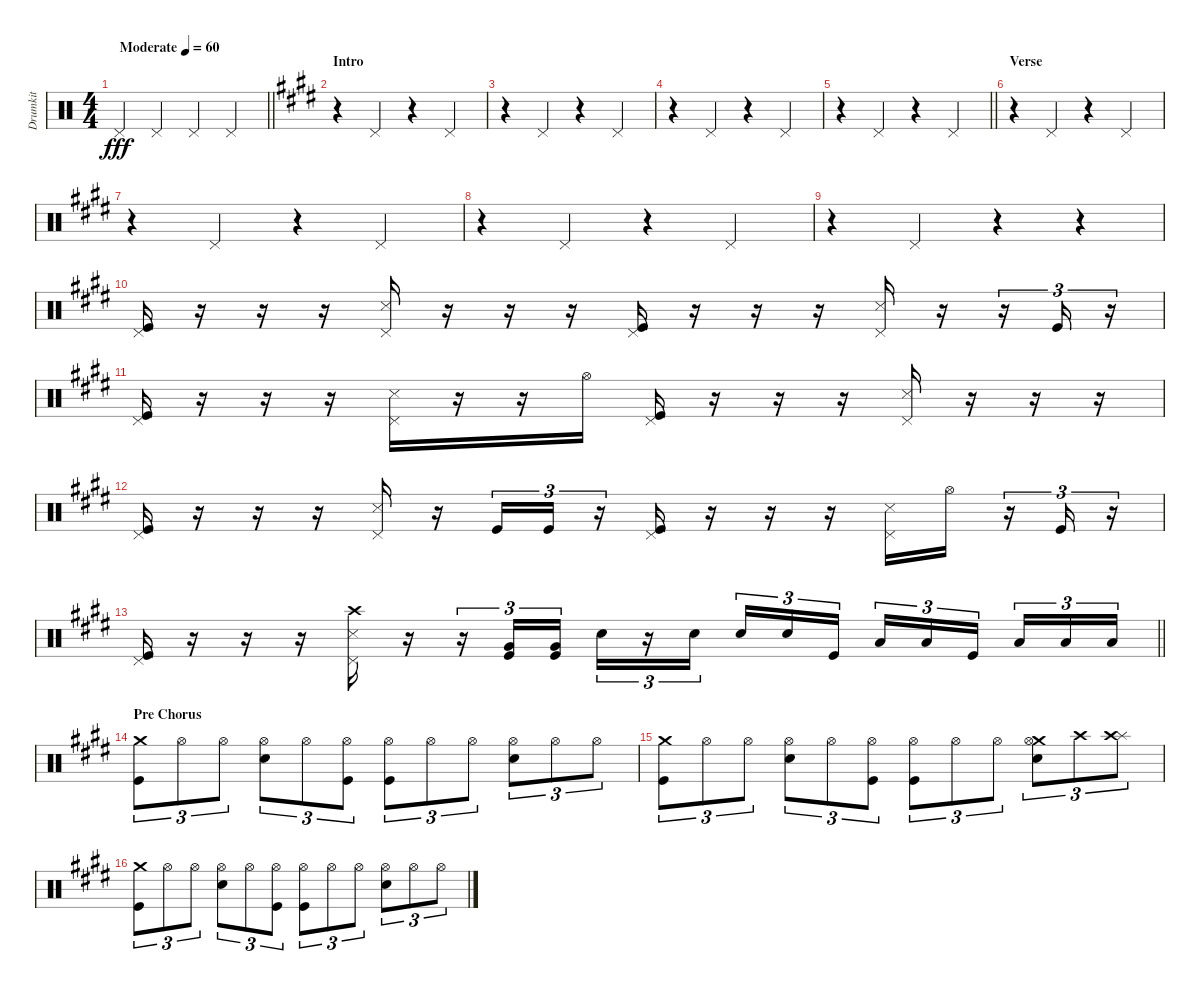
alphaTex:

\track ("Drumkit" "Drumkit") {instrument percussion}
\staff {score}
\articulation defaults
\ts (4 4)
\tempo (60 "Moderate")
\clef neutral
\barLineRight lightlight
\ks c "Pedal Hi-Hat (hit)".4{dy fff} "Pedal Hi-Hat (hit)".4 "Pedal Hi-Hat (hit)".4 "Pedal Hi-Hat (hit)".4
|
\section ("" "Intro")
\ks e
r.4 "Pedal Hi-Hat (hit)".4 r.4 "Pedal Hi-Hat (hit)".4 |
r.4 "Pedal Hi-Hat (hit)".4 r.4 "Pedal Hi-Hat (hit)".4 |
r.4 "Pedal Hi-Hat (hit)".4 r.4 "Pedal Hi-Hat (hit)".4 |
\barLineRight lightlight
r.4 "Pedal Hi-Hat (hit)".4 r.4 "Pedal Hi-Hat (hit)".4 |
\section ("" "Verse")
r.4 "Pedal Hi-Hat (hit)".4 r.4 "Pedal Hi-Hat (hit)".4 |
r.4 "Pedal Hi-Hat (hit)".4 r.4 "Pedal Hi-Hat (hit)".4 |
r.4 "Pedal Hi-Hat (hit)".4 r.4 "Pedal Hi-Hat (hit)".4 |
r.4 "Pedal Hi-Hat (hit)".4 r.4 r.4 |
("Pedal Hi-Hat (hit)" "Kick (hit)").16 r.16 r.16 r.16 ("Pedal Hi-Hat (hit)" "Snare (side stick) 3").16 r.16 r.16 r.16 ("Pedal Hi-Hat (hit)" "Kick (hit)").16 r.16 r.16 r.16 ("Pedal Hi-Hat (hit)" "Snare (side stick) 3").16 r.16 r.16{tu (3 2)} "Kick (hit)".16{tu (3 2)} r.16{tu (3 2)} |
("Pedal Hi-Hat (hit)" "Kick (hit)").16 r.16 r.16 r.16 ("Pedal Hi-Hat (hit)" "Snare (side stick) 3").16 r.16 r.16 "Hi-Hat (open)".16 ("Pedal Hi-Hat (hit)" "Kick (hit)").16 r.16 r.16 r.16 ("Pedal Hi-Hat (hit)" "Snare (side stick) 3").16 r.16 r.16 r.16 |
("Pedal Hi-Hat (hit)" "Kick (hit)").16 r.16 r.16 r.16 ("Pedal Hi-Hat (hit)" "Snare (side stick) 3").16 r.16 "Kick (hit)".16{tu (3 2)} "Kick (hit)".16{tu (3 2)} r.16{tu (3 2)} ("Pedal Hi-Hat (hit)" "Kick (hit)").16 r.16 r.16 r.16 ("Pedal Hi-Hat (hit)" "Snare (side stick) 3").16 "Hi-Hat (open)".16 r.16{tu (3 2)} "Kick (hit)".16{tu (3 2)} r.16{tu (3 2)} |
\barLineRight lightlight
("Pedal Hi-Hat (hit)" "Kick (hit)").16 r.16 r.16 r.16 ("Crash high (hit)" "Pedal Hi-Hat (hit)" "Snare (side stick) 3").16 r.16 r.16{tu (3 2)} ("Very Low Tom (hit)" "Kick (hit)").16{tu (3 2)} ("Very Low Tom (hit)" "Kick (hit)").16{tu (3 2)} "Snare (hit) 2".16{tu (3 2)} r.16{tu (3 2)} "Snare (hit) 2".16{tu (3 2)} "Snare (hit) 2".16{tu (3 2)} "Snare (hit) 2".16{tu (3 2)} "Kick (hit)".16{tu (3 2)} "Low Tom (hit)".16{tu (3 2)} "Low Tom (hit)".16{tu (3 2)} "Kick (hit)".16{tu (3 2)} "Low Floor Tom (hit)".16{tu (3 2)} "Low Floor Tom (hit)".16{tu (3 2)} "Low Floor Tom (hit)".16{tu (3 2)} |
\section ("" "Pre Chorus")
("Crash medium (hit)" "Kick (hit)").8{tu (3 2)} "Hi-Hat (open)".8{tu (3 2)} "Hi-Hat (open)".8{tu (3 2)} ("Hi-Hat (open)" "Snare (hit) 2").8{tu (3 2)} "Hi-Hat (open)".8{tu (3 2)} ("Hi-Hat (open)" "Kick (hit)").8{tu (3 2)} ("Hi-Hat (open)" "Kick (hit)").8{tu (3 2)} "Hi-Hat (open)".8{tu (3 2)} "Hi-Hat (open)".8{tu (3 2)} ("Hi-Hat (open)" "Snare (hit) 2").8{tu (3 2)} "Hi-Hat (open)".8{tu (3 2)} "Hi-Hat (open)".8{tu (3 2)} |
("Crash medium (hit)" "Kick (hit)").8{tu (3 2)} "Hi-Hat (open)".8{tu (3 2)} "Hi-Hat (open)".8{tu (3 2)} ("Hi-Hat (open)" "Snare (hit) 2").8{tu (3 2)} "Hi-Hat (open)".8{tu (3 2)} ("Hi-Hat (open)" "Kick (hit)").8{tu (3 2)} ("Hi-Hat (open)" "Kick (hit)").8{tu (3 2)} "Hi-Hat (open)".8{tu (3 2)} "Hi-Hat (open)".8{tu (3 2)} ("Crash medium (hit)" "Hi-Hat (open)" "Snare (hit) 2").8{tu (3 2)} "Crash high (hit)".8{tu (3 2)} ("Splash (hit)" "Crash high (hit)").8{tu (3 2)} |
("Crash medium (hit)" "Kick (hit)").8{tu (3 2)} "Hi-Hat (open)".8{tu (3 2)} "Hi-Hat (open)".8{tu (3 2)} ("Hi-Hat (open)" "Snare (hit) 2").8{tu (3 2)} "Hi-Hat (open)".8{tu (3 2)} ("Hi-Hat (open)" "Kick (hit)").8{tu (3 2)} ("Hi-Hat (open)" "Kick (hit)").8{tu (3 2)} "Hi-Hat (open)".8{tu (3 2)} "Hi-Hat (open)".8{tu (3 2)} ("Hi-Hat (open)" "Snare (hit) 2").8{tu (3 2)} "Hi-Hat (open)".8{tu (3 2)} "Hi-Hat (open)".8{tu (3 2)}
